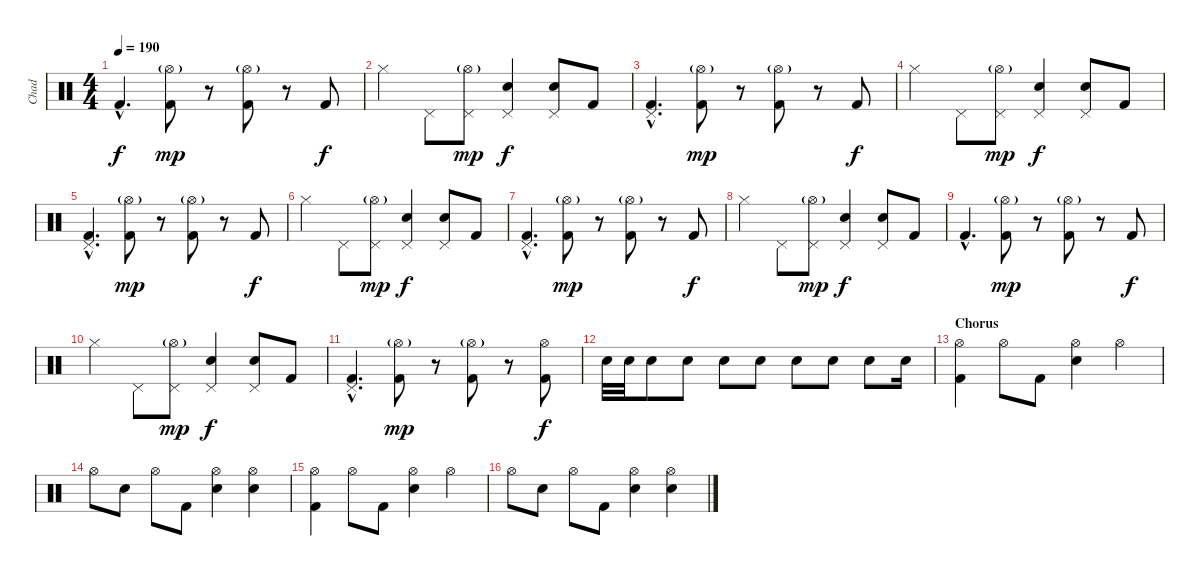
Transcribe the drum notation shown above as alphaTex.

\track ("Chad" "Chad") {instrument percussion}
\staff {score}
\articulation defaults
\ts (4 4)
\tempo 190
\clef neutral
\ks c "Kick (hit) 2"{hac}.4{d dy f}
("Kick (hit) 2" "Hi-Hat (open)"{g}).8{dy mp} r.8 ("Kick (hit) 2" "Hi-Hat (open)"{g}).8 r.8 "Kick (hit) 2".8{dy f} |
"Hi-Hat (closed)".4 "Pedal Hi-Hat (hit)".8 ("Pedal Hi-Hat (hit)" "Hi-Hat (open)"{g}).8{dy mp} ("Electric Snare (hit)" "Pedal Hi-Hat (hit)").4{dy f} ("Electric Snare (hit)" "Pedal Hi-Hat (hit)").8 "Kick (hit) 2".8 |
("Kick (hit) 2"{hac} "Pedal Hi-Hat (hit)"{hac}).4{d} ("Kick (hit) 2" "Hi-Hat (open)"{g}).8{dy mp} r.8 ("Kick (hit) 2" "Hi-Hat (open)"{g}).8 r.8 "Kick (hit) 2".8{dy f} |
"Hi-Hat (closed)".4 "Pedal Hi-Hat (hit)".8 ("Pedal Hi-Hat (hit)" "Hi-Hat (open)"{g}).8{dy mp} ("Electric Snare (hit)" "Pedal Hi-Hat (hit)").4{dy f} ("Electric Snare (hit)" "Pedal Hi-Hat (hit)").8 "Kick (hit) 2".8 |
("Kick (hit) 2"{hac} "Pedal Hi-Hat (hit)"{hac}).4{d} ("Kick (hit) 2" "Hi-Hat (open)"{g}).8{dy mp} r.8 ("Kick (hit) 2" "Hi-Hat (open)"{g}).8 r.8 "Kick (hit) 2".8{dy f} |
"Hi-Hat (closed)".4 "Pedal Hi-Hat (hit)".8 ("Pedal Hi-Hat (hit)" "Hi-Hat (open)"{g}).8{dy mp} ("Electric Snare (hit)" "Pedal Hi-Hat (hit)").4{dy f} ("Electric Snare (hit)" "Pedal Hi-Hat (hit)").8 "Kick (hit) 2".8 |
("Kick (hit) 2"{hac} "Pedal Hi-Hat (hit)"{hac}).4{d} ("Kick (hit) 2" "Hi-Hat (open)"{g}).8{dy mp} r.8 ("Kick (hit) 2" "Hi-Hat (open)"{g}).8 r.8 "Kick (hit) 2".8{dy f} |
"Hi-Hat (closed)".4 "Pedal Hi-Hat (hit)".8 ("Pedal Hi-Hat (hit)" "Hi-Hat (open)"{g}).8{dy mp} ("Electric Snare (hit)" "Pedal Hi-Hat (hit)").4{dy f} ("Electric Snare (hit)" "Pedal Hi-Hat (hit)").8 "Kick (hit) 2".8 |
"Kick (hit) 2"{hac}.4{d} ("Kick (hit) 2" "Hi-Hat (open)"{g}).8{dy mp} r.8 ("Kick (hit) 2" "Hi-Hat (open)"{g}).8 r.8 "Kick (hit) 2".8{dy f} |
"Hi-Hat (closed)".4 "Pedal Hi-Hat (hit)".8 ("Pedal Hi-Hat (hit)" "Hi-Hat (open)"{g}).8{dy mp} ("Electric Snare (hit)" "Pedal Hi-Hat (hit)").4{dy f} ("Electric Snare (hit)" "Pedal Hi-Hat (hit)").8 "Kick (hit) 2".8 |
("Kick (hit) 2"{hac} "Pedal Hi-Hat (hit)"{hac}).4{d} ("Kick (hit) 2" "Hi-Hat (open)"{g}).8{dy mp} r.8 ("Kick (hit) 2" "Hi-Hat (open)"{g}).8 r.8 ("Kick (hit) 2" "Hi-Hat (open)").8{dy f} |
"Electric Snare (hit)".32 "Electric Snare (hit)".32 "Electric Snare (hit)".8 "Electric Snare (hit)".8 "Electric Snare (hit)".8 "Electric Snare (hit)".8 "Electric Snare (hit)".8 "Electric Snare (hit)".8 "Electric Snare (hit)".8 "Electric Snare (hit)".16 |
\section ("" "Chorus")
("Hi-Hat (open)" "Kick (hit) 2").4 "Hi-Hat (open)".8 "Kick (hit) 2".8 ("Hi-Hat (open)" "Electric Snare (hit)").4 "Hi-Hat (open)".4 |
"Hi-Hat (open)".8 "Electric Snare (hit)".8 "Hi-Hat (open)".8 "Kick (hit) 2".8 ("Hi-Hat (open)" "Electric Snare (hit)").4 ("Hi-Hat (open)" "Electric Snare (hit)").4 |
("Hi-Hat (open)" "Kick (hit) 2").4 "Hi-Hat (open)".8 "Kick (hit) 2".8 ("Hi-Hat (open)" "Electric Snare (hit)").4 "Hi-Hat (open)".4 |
"Hi-Hat (open)".8 "Electric Snare (hit)".8 "Hi-Hat (open)".8 "Kick (hit) 2".8 ("Hi-Hat (open)" "Electric Snare (hit)").4 ("Hi-Hat (open)" "Electric Snare (hit)").4
